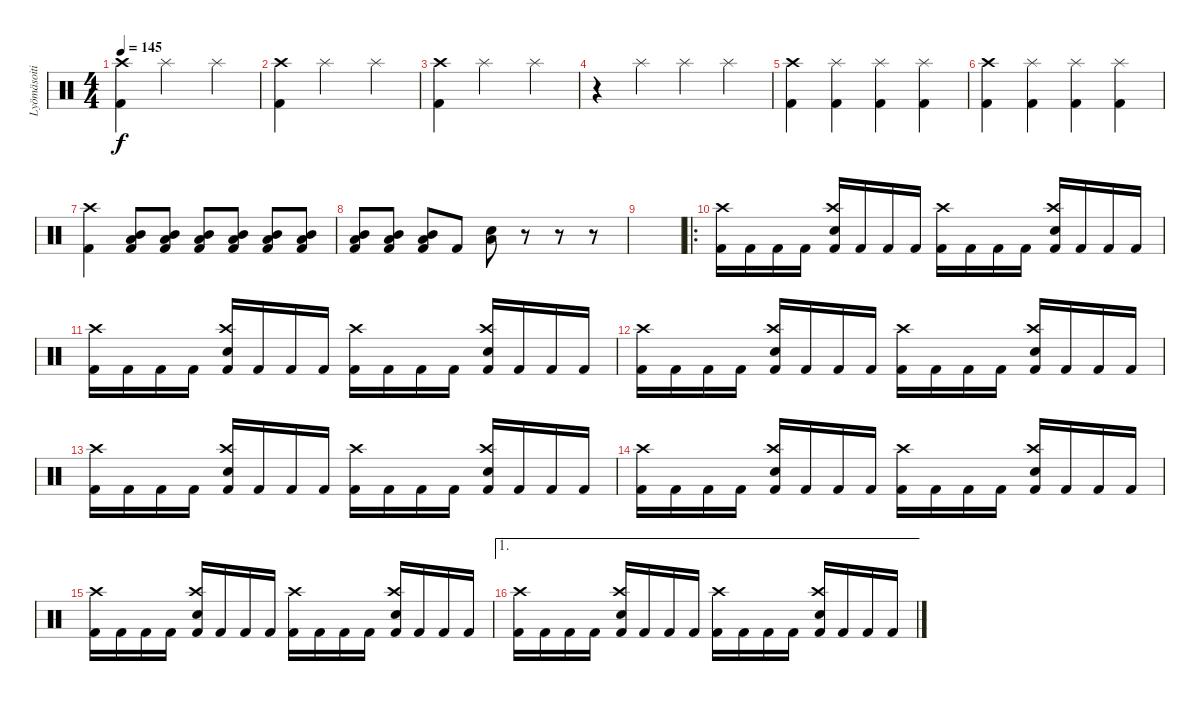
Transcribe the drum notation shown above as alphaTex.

\track ("Lyömäsoitin" "Lyömäsoiti") {instrument percussion}
\staff {score}
\articulation defaults
\ts (4 4)
\tempo 145
\clef neutral
\ks c
("Kick (hit) 2" "Crash high (hit)").4{dy f} "Splash (hit)".2 "Splash (hit)".4 |
("Kick (hit) 2" "Crash high (hit)").4 "Splash (hit)".2 "Splash (hit)".4 |
("Kick (hit) 2" "Crash high (hit)").4 "Splash (hit)".2 "Splash (hit)".4 |
r.4 "Splash (hit)".4 "Splash (hit)".4 "Splash (hit)".4 |
("Kick (hit) 2" "Crash high (hit)").4 ("Kick (hit) 2" "Splash (hit)").4 ("Kick (hit) 2" "Splash (hit)").4 ("Kick (hit) 2" "Splash (hit)").4 |
("Kick (hit) 2" "Crash high (hit)").4 ("Kick (hit) 2" "Splash (hit)").4 ("Kick (hit) 2" "Splash (hit)").4 ("Kick (hit) 2" "Splash (hit)").4 |
("Kick (hit) 2" "Crash high (hit)").4 ("Kick (hit) 2" "Mid Tom (hit)" "Low Tom (hit)").8 ("Kick (hit) 2" "Mid Tom (hit)" "Low Tom (hit)").8 ("Kick (hit) 2" "Mid Tom (hit)" "Low Tom (hit)").8 ("Kick (hit) 2" "Mid Tom (hit)" "Low Tom (hit)").8 ("Kick (hit) 2" "Mid Tom (hit)" "Low Tom (hit)").8 ("Kick (hit) 2" "Mid Tom (hit)" "Low Tom (hit)").8 |
("Kick (hit) 2" "Mid Tom (hit)" "Low Tom (hit)").8 ("Kick (hit) 2" "Mid Tom (hit)" "Low Tom (hit)").8 ("Kick (hit) 2" "Mid Tom (hit)" "Low Tom (hit)").8 "Kick (hit) 2".8 ("Electric Snare (hit)" "Low Floor Tom (hit)").8 r.8 r.8 r.8 |
|
\ro
("Kick (hit) 2" "Crash high (hit)").16 "Kick (hit) 2".16 "Kick (hit) 2".16 "Kick (hit) 2".16 ("Kick (hit) 2" "Electric Snare (hit)" "Crash high (hit)").16 "Kick (hit) 2".16 "Kick (hit) 2".16 "Kick (hit) 2".16 ("Kick (hit) 2" "Crash high (hit)").16 "Kick (hit) 2".16 "Kick (hit) 2".16 "Kick (hit) 2".16 ("Kick (hit) 2" "Electric Snare (hit)" "Crash high (hit)").16 "Kick (hit) 2".16 "Kick (hit) 2".16 "Kick (hit) 2".16 |
("Kick (hit) 2" "Crash high (hit)").16 "Kick (hit) 2".16 "Kick (hit) 2".16 "Kick (hit) 2".16 ("Kick (hit) 2" "Electric Snare (hit)" "Crash high (hit)").16 "Kick (hit) 2".16 "Kick (hit) 2".16 "Kick (hit) 2".16 ("Kick (hit) 2" "Crash high (hit)").16 "Kick (hit) 2".16 "Kick (hit) 2".16 "Kick (hit) 2".16 ("Kick (hit) 2" "Electric Snare (hit)" "Crash high (hit)").16 "Kick (hit) 2".16 "Kick (hit) 2".16 "Kick (hit) 2".16 |
("Kick (hit) 2" "Crash high (hit)").16 "Kick (hit) 2".16 "Kick (hit) 2".16 "Kick (hit) 2".16 ("Kick (hit) 2" "Electric Snare (hit)" "Crash high (hit)").16 "Kick (hit) 2".16 "Kick (hit) 2".16 "Kick (hit) 2".16 ("Kick (hit) 2" "Crash high (hit)").16 "Kick (hit) 2".16 "Kick (hit) 2".16 "Kick (hit) 2".16 ("Kick (hit) 2" "Electric Snare (hit)" "Crash high (hit)").16 "Kick (hit) 2".16 "Kick (hit) 2".16 "Kick (hit) 2".16 |
("Kick (hit) 2" "Crash high (hit)").16 "Kick (hit) 2".16 "Kick (hit) 2".16 "Kick (hit) 2".16 ("Kick (hit) 2" "Electric Snare (hit)" "Crash high (hit)").16 "Kick (hit) 2".16 "Kick (hit) 2".16 "Kick (hit) 2".16 ("Kick (hit) 2" "Crash high (hit)").16 "Kick (hit) 2".16 "Kick (hit) 2".16 "Kick (hit) 2".16 ("Kick (hit) 2" "Electric Snare (hit)" "Crash high (hit)").16 "Kick (hit) 2".16 "Kick (hit) 2".16 "Kick (hit) 2".16 |
("Kick (hit) 2" "Crash high (hit)").16 "Kick (hit) 2".16 "Kick (hit) 2".16 "Kick (hit) 2".16 ("Kick (hit) 2" "Electric Snare (hit)" "Crash high (hit)").16 "Kick (hit) 2".16 "Kick (hit) 2".16 "Kick (hit) 2".16 ("Kick (hit) 2" "Crash high (hit)").16 "Kick (hit) 2".16 "Kick (hit) 2".16 "Kick (hit) 2".16 ("Kick (hit) 2" "Electric Snare (hit)" "Crash high (hit)").16 "Kick (hit) 2".16 "Kick (hit) 2".16 "Kick (hit) 2".16 |
("Kick (hit) 2" "Crash high (hit)").16 "Kick (hit) 2".16 "Kick (hit) 2".16 "Kick (hit) 2".16 ("Kick (hit) 2" "Electric Snare (hit)" "Crash high (hit)").16 "Kick (hit) 2".16 "Kick (hit) 2".16 "Kick (hit) 2".16 ("Kick (hit) 2" "Crash high (hit)").16 "Kick (hit) 2".16 "Kick (hit) 2".16 "Kick (hit) 2".16 ("Kick (hit) 2" "Electric Snare (hit)" "Crash high (hit)").16 "Kick (hit) 2".16 "Kick (hit) 2".16 "Kick (hit) 2".16 |
\ae 1
("Kick (hit) 2" "Crash high (hit)").16 "Kick (hit) 2".16 "Kick (hit) 2".16 "Kick (hit) 2".16 ("Kick (hit) 2" "Electric Snare (hit)" "Crash high (hit)").16 "Kick (hit) 2".16 "Kick (hit) 2".16 "Kick (hit) 2".16 ("Kick (hit) 2" "Crash high (hit)").16 "Kick (hit) 2".16 "Kick (hit) 2".16 "Kick (hit) 2".16 ("Kick (hit) 2" "Electric Snare (hit)" "Crash high (hit)").16 "Kick (hit) 2".16 "Kick (hit) 2".16 "Kick (hit) 2".16
